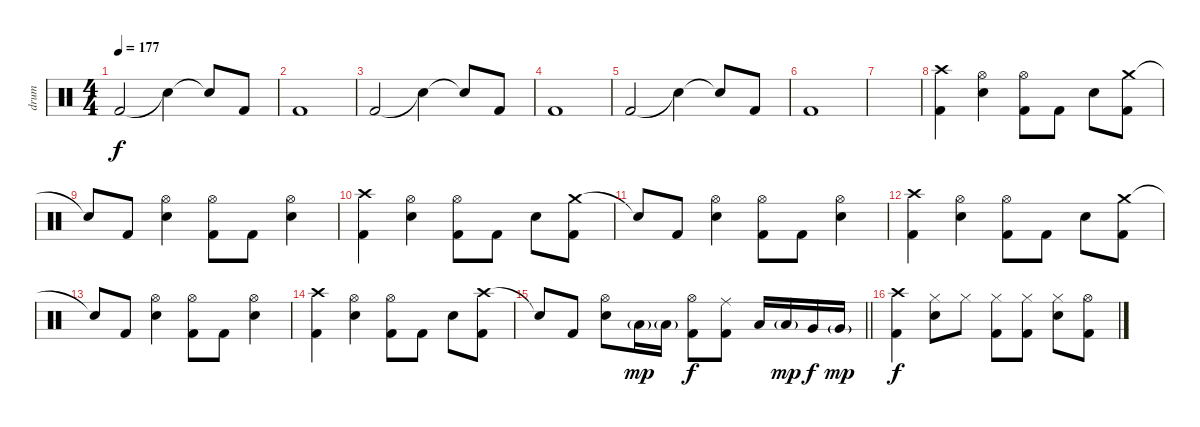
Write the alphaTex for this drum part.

\track ("drum" "drum") {instrument percussion}
\staff {score}
\articulation defaults
\ts (4 4)
\section ("" "")
\tempo 177
\clef neutral
\ks c "Kick (hit) 2".2{dy f} "Snare (hit)"{t}.4 "Snare (hit)"{t}.8 "Kick (hit) 2".8
|
"Kick (hit) 2".1 |
"Kick (hit) 2".2 "Snare (hit)"{t}.4 "Snare (hit)"{t}.8 "Kick (hit) 2".8 |
"Kick (hit) 2".1 |
"Kick (hit) 2".2 "Snare (hit)"{t}.4 "Snare (hit)"{t}.8 "Kick (hit) 2".8 |
"Kick (hit) 2".1 |
|
("Crash high (hit)" "Kick (hit) 2").4 ("Hi-Hat (open)" "Electric Snare (hit)").4 ("Hi-Hat (open)" "Kick (hit) 2").8 "Kick (hit) 2".8 "Electric Snare (hit)".8 ("Crash medium (hit)" "Kick (hit) 2").8 |
"Snare (hit)"{t}.8 "Kick (hit) 2".8 ("Hi-Hat (open)" "Electric Snare (hit)").4 ("Hi-Hat (open)" "Kick (hit) 2").8 "Kick (hit) 2".8 ("Hi-Hat (open)" "Electric Snare (hit)").4 |
("Crash high (hit)" "Kick (hit) 2").4 ("Hi-Hat (open)" "Electric Snare (hit)").4 ("Hi-Hat (open)" "Kick (hit) 2").8 "Kick (hit) 2".8 "Electric Snare (hit)".8 ("Crash medium (hit)" "Kick (hit) 2").8 |
"Snare (hit)"{t}.8 "Kick (hit) 2".8 ("Hi-Hat (open)" "Electric Snare (hit)").4 ("Hi-Hat (open)" "Kick (hit) 2").8 "Kick (hit) 2".8 ("Hi-Hat (open)" "Electric Snare (hit)").4 |
("Crash high (hit)" "Kick (hit) 2").4 ("Hi-Hat (open)" "Electric Snare (hit)").4 ("Hi-Hat (open)" "Kick (hit) 2").8 "Kick (hit) 2".8 "Electric Snare (hit)".8 ("Crash medium (hit)" "Kick (hit) 2").8 |
"Snare (hit)"{t}.8 "Kick (hit) 2".8 ("Hi-Hat (open)" "Electric Snare (hit)").4 ("Hi-Hat (open)" "Kick (hit) 2").8 "Kick (hit) 2".8 ("Hi-Hat (open)" "Electric Snare (hit)").4 |
("Crash high (hit)" "Kick (hit) 2").4 ("Hi-Hat (open)" "Electric Snare (hit)").4 ("Hi-Hat (open)" "Kick (hit) 2").8 "Kick (hit) 2".8 "Electric Snare (hit)".8 ("Crash high (hit)" "Kick (hit) 2").8 |
\barLineRight lightlight "Snare (hit)"{t}.8 "Kick (hit) 2".8
("Hi-Hat (open)" "Electric Snare (hit)").8 "Low Tom (hit)"{g}.16{dy mp} "Low Tom (hit)"{g}.16 ("Hi-Hat (open)" "Kick (hit) 2").8{dy f} ("Ride (middle)" "Kick (hit) 2").8 "Low Tom (hit)".16 "Low Tom (hit)"{g}.16{dy mp} "Very Low Tom (hit)".16{dy f} "Very Low Tom (hit)"{g}.16{dy mp} |
\section ("" "")
("Crash high (hit)" "Kick (hit) 2").4{dy f} ("Hi-Hat (closed)" "Electric Snare (hit)").8 "Hi-Hat (closed)".8 ("Hi-Hat (closed)" "Kick (hit) 2").8 ("Hi-Hat (closed)" "Kick (hit) 2").8 ("Hi-Hat (closed)" "Electric Snare (hit)").8 ("Hi-Hat (open)" "Kick (hit) 2").8
